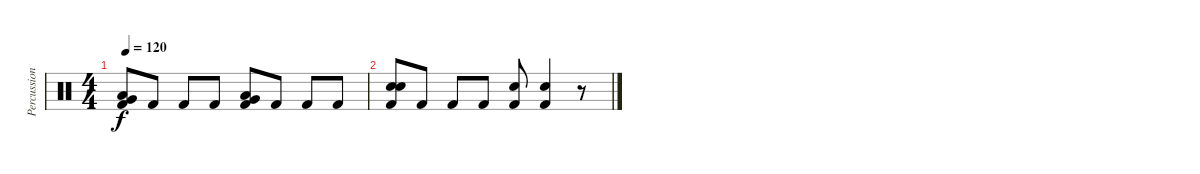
\track ("Percussion" "Percussion") {instrument percussion}
\staff {score}
\articulation defaults
\ts (4 4)
\tempo 120
\clef neutral
\ks c
("Low Tom (hit)" "Very Low Tom (hit)" "Kick (hit) 2").8{bu 240 dy f} "Kick (hit) 2".8 "Kick (hit) 2".8 "Kick (hit) 2".8 ("Low Tom (hit)" "Very Low Tom (hit)" "Kick (hit) 2").8{bu 240} "Kick (hit) 2".8 "Kick (hit) 2".8 "Kick (hit) 2".8 |
("Electric Snare (hit)" "Electric Snare (hit)" "Kick (hit) 2").8{bu 240} "Kick (hit) 2".8 "Kick (hit) 2".8 "Kick (hit) 2".8 ("Electric Snare (hit)" "Kick (hit) 2").8 ("Electric Snare (hit)" "Kick (hit) 2").4 r.8
